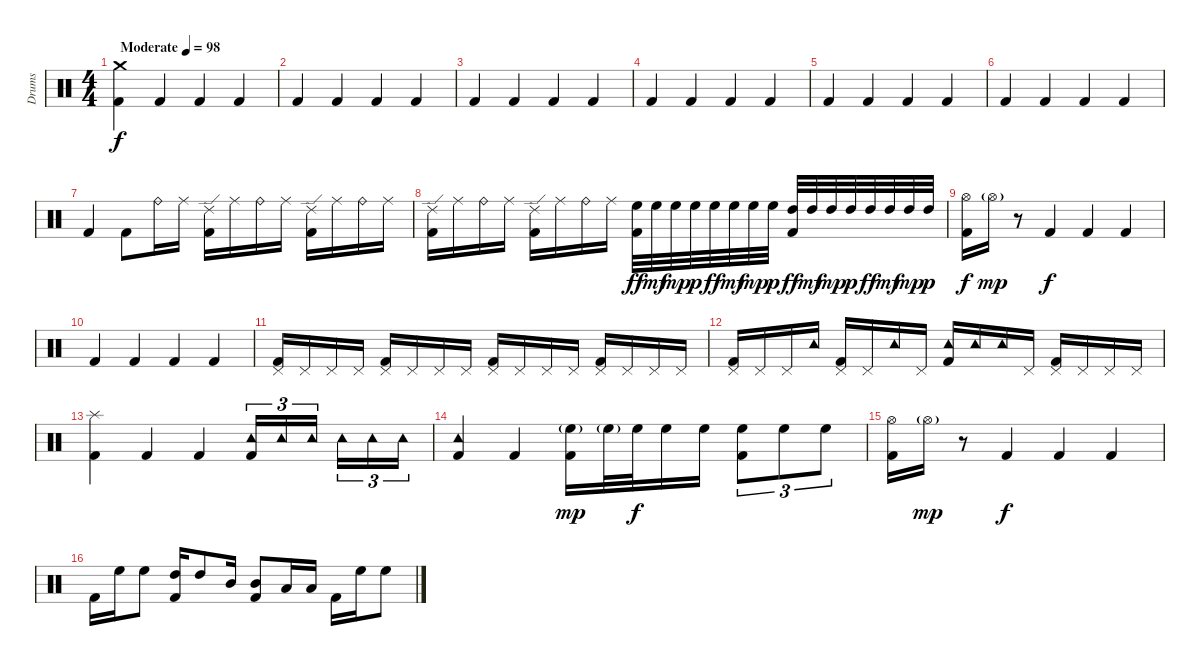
\track ("Drums" "Drums") {instrument percussion}
\staff {score}
\articulation defaults
\ts (4 4)
\tempo (98 "Moderate")
\clef neutral
\ks c
("Crash medium (hit)" "Kick (hit) 2").4{dy f} "Kick (hit) 2".4 "Kick (hit) 2".4 "Kick (hit) 2".4 |
"Kick (hit) 2".4 "Kick (hit) 2".4 "Kick (hit) 2".4 "Kick (hit) 2".4 |
"Kick (hit) 2".4 "Kick (hit) 2".4 "Kick (hit) 2".4 "Kick (hit) 2".4 |
"Kick (hit) 2".4 "Kick (hit) 2".4 "Kick (hit) 2".4 "Kick (hit) 2".4 |
"Kick (hit) 2".4 "Kick (hit) 2".4 "Kick (hit) 2".4 "Kick (hit) 2".4 |
"Kick (hit) 2".4 "Kick (hit) 2".4 "Kick (hit) 2".4 "Kick (hit) 2".4 |
"Kick (hit) 2".4 "Kick (hit) 2".8 "Ride (bell)".16 "Ride (middle)".16 ("Ride (edge) 2" "Kick (hit) 2").16 "Ride (middle)".16 "Ride (bell)".16 "Ride (middle)".16 ("Ride (edge) 2" "Kick (hit) 2").16 "Ride (middle)".16 "Ride (bell)".16 "Ride (middle)".16 |
("Ride (edge) 2" "Kick (hit) 2").16 "Ride (middle)".16 "Ride (bell)".16 "Ride (middle)".16 ("Ride (edge) 2" "Kick (hit) 2").16 "Ride (middle)".16 "Ride (bell)".16 "Ride (middle)".16 ("High Floor Tom (hit)" "Kick (hit) 2").32{dy ff} "High Floor Tom (hit)".32{dy mf} "High Floor Tom (hit)".32{dy mp} "High Floor Tom (hit)".32{dy p} "High Floor Tom (hit)".32{dy ff} "High Floor Tom (hit)".32{dy mf} "High Floor Tom (hit)".32{dy mp} "High Floor Tom (hit)".32{dy p} ("High Tom (hit)" "Kick (hit) 2").32{dy ff} "High Tom (hit)".32{dy mf} "High Tom (hit)".32{dy mp} "High Tom (hit)".32{dy p} "High Tom (hit)".32{dy ff} "High Tom (hit)".32{dy mf} "High Tom (hit)".32{dy mp} "High Tom (hit)".32{dy p} |
("Hi-Hat (open)" "Kick (hit) 2").16{dy f} "Hi-Hat (open)"{g}.16{dy mp} r.8 "Kick (hit) 2".4{dy f} "Kick (hit) 2".4 "Kick (hit) 2".4 |
"Kick (hit) 2".4 "Kick (hit) 2".4 "Kick (hit) 2".4 "Kick (hit) 2".4 |
("Pedal Hi-Hat (hit)" "Kick (hit) 2").16 "Pedal Hi-Hat (hit)".16 "Pedal Hi-Hat (hit)".16 "Pedal Hi-Hat (hit)".16 ("Pedal Hi-Hat (hit)" "Kick (hit) 2").16 "Pedal Hi-Hat (hit)".16 "Pedal Hi-Hat (hit)".16 "Pedal Hi-Hat (hit)".16 ("Pedal Hi-Hat (hit)" "Kick (hit) 2").16 "Pedal Hi-Hat (hit)".16 "Pedal Hi-Hat (hit)".16 "Pedal Hi-Hat (hit)".16 ("Pedal Hi-Hat (hit)" "Kick (hit) 2").16 "Pedal Hi-Hat (hit)".16 "Pedal Hi-Hat (hit)".16 "Pedal Hi-Hat (hit)".16 |
("Pedal Hi-Hat (hit)" "Kick (hit) 2").16 "Pedal Hi-Hat (hit)".16 "Pedal Hi-Hat (hit)".16 "Tambourine (hit)".16 ("Pedal Hi-Hat (hit)" "Kick (hit) 2").16 "Pedal Hi-Hat (hit)".16 "Tambourine (hit)".16 "Pedal Hi-Hat (hit)".16 ("Tambourine (hit)" "Kick (hit) 2").16 "Tambourine (hit)".16 "Tambourine (hit)".16 "Pedal Hi-Hat (hit)".16 ("Pedal Hi-Hat (hit)" "Kick (hit) 2").16 "Pedal Hi-Hat (hit)".16 "Pedal Hi-Hat (hit)".16 "Pedal Hi-Hat (hit)".16 |
("Splash (hit)" "Kick (hit) 2").4 "Kick (hit) 2".4 "Kick (hit) 2".4 ("Tambourine (hit)" "Kick (hit) 2").16{tu (3 2)} "Tambourine (hit)".16{tu (3 2)} "Tambourine (hit)".16{tu (3 2) beam splitsecondary} "Tambourine (hit)".16{tu (3 2)} "Tambourine (hit)".16{tu (3 2)} "Tambourine (hit)".16{tu (3 2)} |
("Tambourine (hit)" "Kick (hit) 2").4 "Kick (hit) 2".4 ("High Floor Tom (hit)"{g} "Kick (hit) 2").16{dy mp} "High Floor Tom (hit)"{g}.32 "High Floor Tom (hit)".32{dy f} "High Floor Tom (hit)".16 "High Floor Tom (hit)".16 ("High Floor Tom (hit)" "Kick (hit) 2").8{tu (3 2)} "High Floor Tom (hit)".8{tu (3 2)} "High Floor Tom (hit)".8{tu (3 2)} |
("Hi-Hat (open)" "Kick (hit) 2").16 "Hi-Hat (open)"{g}.16{dy mp} r.8 "Kick (hit) 2".4{dy f} "Kick (hit) 2".4 "Kick (hit) 2".4 |
"Kick (hit) 2".16 "High Floor Tom (hit)".16 "High Floor Tom (hit)".8 ("High Tom (hit)" "Kick (hit) 2").16 "High Tom (hit)".8 "Mid Tom (hit)".16 ("Mid Tom (hit)" "Kick (hit) 2").8 "Low Tom (hit)".16 "Low Tom (hit)".16 "Kick (hit) 2".16 "High Floor Tom (hit)".16 "High Floor Tom (hit)".8
